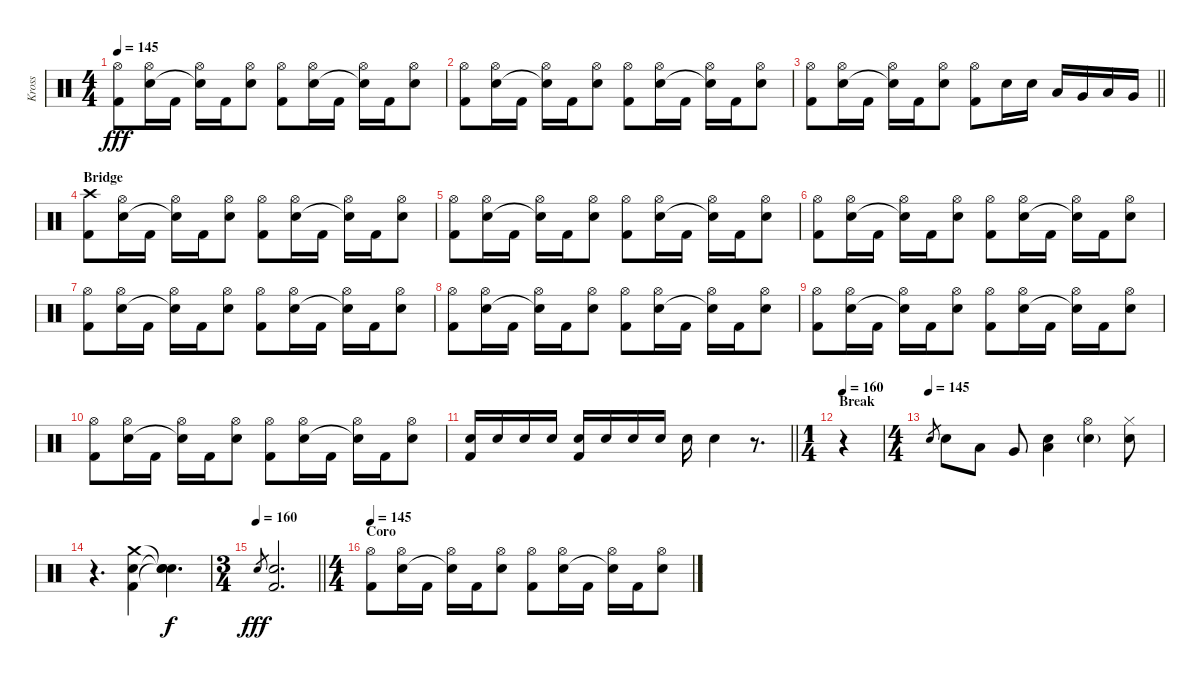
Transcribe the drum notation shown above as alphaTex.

\track ("Kross" "Kross") {instrument percussion}
\staff {score}
\articulation defaults
\ts (4 4)
\tempo 145
\clef neutral
\ks c
("Hi-Hat (open)" "Kick (hit) 2").8{dy fff} ("Hi-Hat (open)" "Electric Snare (hit)").16 "Kick (hit) 2".16 ("Hi-Hat (open)" "Snare (hit)"{t}).16 "Kick (hit) 2".16 ("Hi-Hat (open)" "Electric Snare (hit)").8 ("Hi-Hat (open)" "Kick (hit) 2").8 ("Hi-Hat (open)" "Electric Snare (hit)").16 "Kick (hit) 2".16 ("Hi-Hat (open)" "Snare (hit)"{t}).16 "Kick (hit) 2".16 ("Hi-Hat (open)" "Electric Snare (hit)").8 |
("Hi-Hat (open)" "Kick (hit) 2").8 ("Hi-Hat (open)" "Electric Snare (hit)").16 "Kick (hit) 2".16 ("Hi-Hat (open)" "Snare (hit)"{t}).16 "Kick (hit) 2".16 ("Hi-Hat (open)" "Electric Snare (hit)").8 ("Hi-Hat (open)" "Kick (hit) 2").8 ("Hi-Hat (open)" "Electric Snare (hit)").16 "Kick (hit) 2".16 ("Hi-Hat (open)" "Snare (hit)"{t}).16 "Kick (hit) 2".16 ("Hi-Hat (open)" "Electric Snare (hit)").8 |
\barLineRight lightlight
("Hi-Hat (open)" "Kick (hit) 2").8 ("Hi-Hat (open)" "Electric Snare (hit)").16 "Kick (hit) 2".16 ("Hi-Hat (open)" "Snare (hit)"{t}).16 "Kick (hit) 2".16 ("Hi-Hat (open)" "Electric Snare (hit)").8 ("Hi-Hat (open)" "Kick (hit) 2").8 "Electric Snare (hit)".16 "Electric Snare (hit)".16 "Low Tom (hit)".16 "Very Low Tom (hit)".16 "Low Floor Tom (hit)".16 "Very Low Tom (hit)".16 |
\section ("" "Bridge")
("Crash high (hit)" "Kick (hit) 2").8 ("Hi-Hat (open)" "Electric Snare (hit)").16 "Kick (hit) 2".16 ("Hi-Hat (open)" "Snare (hit)"{t}).16 "Kick (hit) 2".16 ("Hi-Hat (open)" "Electric Snare (hit)").8 ("Hi-Hat (open)" "Kick (hit) 2").8 ("Hi-Hat (open)" "Electric Snare (hit)").16 "Kick (hit) 2".16 ("Hi-Hat (open)" "Snare (hit)"{t}).16 "Kick (hit) 2".16 ("Hi-Hat (open)" "Electric Snare (hit)").8 |
("Hi-Hat (open)" "Kick (hit) 2").8 ("Hi-Hat (open)" "Electric Snare (hit)").16 "Kick (hit) 2".16 ("Hi-Hat (open)" "Snare (hit)"{t}).16 "Kick (hit) 2".16 ("Hi-Hat (open)" "Electric Snare (hit)").8 ("Hi-Hat (open)" "Kick (hit) 2").8 ("Hi-Hat (open)" "Electric Snare (hit)").16 "Kick (hit) 2".16 ("Hi-Hat (open)" "Snare (hit)"{t}).16 "Kick (hit) 2".16 ("Hi-Hat (open)" "Electric Snare (hit)").8 |
("Hi-Hat (open)" "Kick (hit) 2").8 ("Hi-Hat (open)" "Electric Snare (hit)").16 "Kick (hit) 2".16 ("Hi-Hat (open)" "Snare (hit)"{t}).16 "Kick (hit) 2".16 ("Hi-Hat (open)" "Electric Snare (hit)").8 ("Hi-Hat (open)" "Kick (hit) 2").8 ("Hi-Hat (open)" "Electric Snare (hit)").16 "Kick (hit) 2".16 ("Hi-Hat (open)" "Snare (hit)"{t}).16 "Kick (hit) 2".16 ("Hi-Hat (open)" "Electric Snare (hit)").8 |
("Hi-Hat (open)" "Kick (hit) 2").8 ("Hi-Hat (open)" "Electric Snare (hit)").16 "Kick (hit) 2".16 ("Hi-Hat (open)" "Snare (hit)"{t}).16 "Kick (hit) 2".16 ("Hi-Hat (open)" "Electric Snare (hit)").8 ("Hi-Hat (open)" "Kick (hit) 2").8 ("Hi-Hat (open)" "Electric Snare (hit)").16 "Kick (hit) 2".16 ("Hi-Hat (open)" "Snare (hit)"{t}).16 "Kick (hit) 2".16 ("Hi-Hat (open)" "Electric Snare (hit)").8 |
("Hi-Hat (open)" "Kick (hit) 2").8 ("Hi-Hat (open)" "Electric Snare (hit)").16 "Kick (hit) 2".16 ("Hi-Hat (open)" "Snare (hit)"{t}).16 "Kick (hit) 2".16 ("Hi-Hat (open)" "Electric Snare (hit)").8 ("Hi-Hat (open)" "Kick (hit) 2").8 ("Hi-Hat (open)" "Electric Snare (hit)").16 "Kick (hit) 2".16 ("Hi-Hat (open)" "Snare (hit)"{t}).16 "Kick (hit) 2".16 ("Hi-Hat (open)" "Electric Snare (hit)").8 |
("Hi-Hat (open)" "Kick (hit) 2").8 ("Hi-Hat (open)" "Electric Snare (hit)").16 "Kick (hit) 2".16 ("Hi-Hat (open)" "Snare (hit)"{t}).16 "Kick (hit) 2".16 ("Hi-Hat (open)" "Electric Snare (hit)").8 ("Hi-Hat (open)" "Kick (hit) 2").8 ("Hi-Hat (open)" "Electric Snare (hit)").16 "Kick (hit) 2".16 ("Hi-Hat (open)" "Snare (hit)"{t}).16 "Kick (hit) 2".16 ("Hi-Hat (open)" "Electric Snare (hit)").8 |
("Hi-Hat (open)" "Kick (hit) 2").8 ("Hi-Hat (open)" "Electric Snare (hit)").16 "Kick (hit) 2".16 ("Hi-Hat (open)" "Snare (hit)"{t}).16 "Kick (hit) 2".16 ("Hi-Hat (open)" "Electric Snare (hit)").8 ("Hi-Hat (open)" "Kick (hit) 2").8 ("Hi-Hat (open)" "Electric Snare (hit)").16 "Kick (hit) 2".16 ("Hi-Hat (open)" "Snare (hit)"{t}).16 "Kick (hit) 2".16 ("Hi-Hat (open)" "Electric Snare (hit)").8 |
\barLineRight lightlight
("Electric Snare (hit)" "Kick (hit) 2").16 "Electric Snare (hit)".16 "Electric Snare (hit)".16 "Electric Snare (hit)".16 ("Electric Snare (hit)" "Kick (hit) 2").16 "Electric Snare (hit)".16 "Electric Snare (hit)".16 "Electric Snare (hit)".16 "Electric Snare (hit)".16 "Electric Snare (hit)".4 r.8{d} |
\ts (1 4)
\section ("" "Break")
\tempo 160
r.4 |
\ts (4 4)
\tempo (145)
"Electric Snare (hit)".8{gr} "Electric Snare (hit)".8 "Low Tom (hit)".8 "Very Low Tom (hit)".8 ("Electric Snare (hit)" "Low Floor Tom (hit)").4 ("Hi-Hat (open)" "Electric Snare (hit)"{g}).4 ("Hi-Hat (closed)" "Electric Snare (hit)").8 |
r.4{d} ("Crash medium (hit)" "Electric Snare (hit)" "Kick (hit) 2").4 ("Snare (hit)"{t} "Snare (hit)"{t} "Snare (hit)"{t}).4{d dy f} |
\ts (3 4)
\tempo 160
\barLineRight lightlight "Electric Snare (hit)".8{gr dy fff}
("Electric Snare (hit)" "Kick (hit) 2").2{d} |
\ts (4 4)
\section ("" "Coro")
\tempo 145
("Hi-Hat (open)" "Kick (hit) 2").8 ("Hi-Hat (open)" "Electric Snare (hit)").16 "Kick (hit) 2".16 ("Hi-Hat (open)" "Snare (hit)"{t}).16 "Kick (hit) 2".16 ("Hi-Hat (open)" "Electric Snare (hit)").8 ("Hi-Hat (open)" "Kick (hit) 2").8 ("Hi-Hat (open)" "Electric Snare (hit)").16 "Kick (hit) 2".16 ("Hi-Hat (open)" "Snare (hit)"{t}).16 "Kick (hit) 2".16 ("Hi-Hat (open)" "Electric Snare (hit)").8
